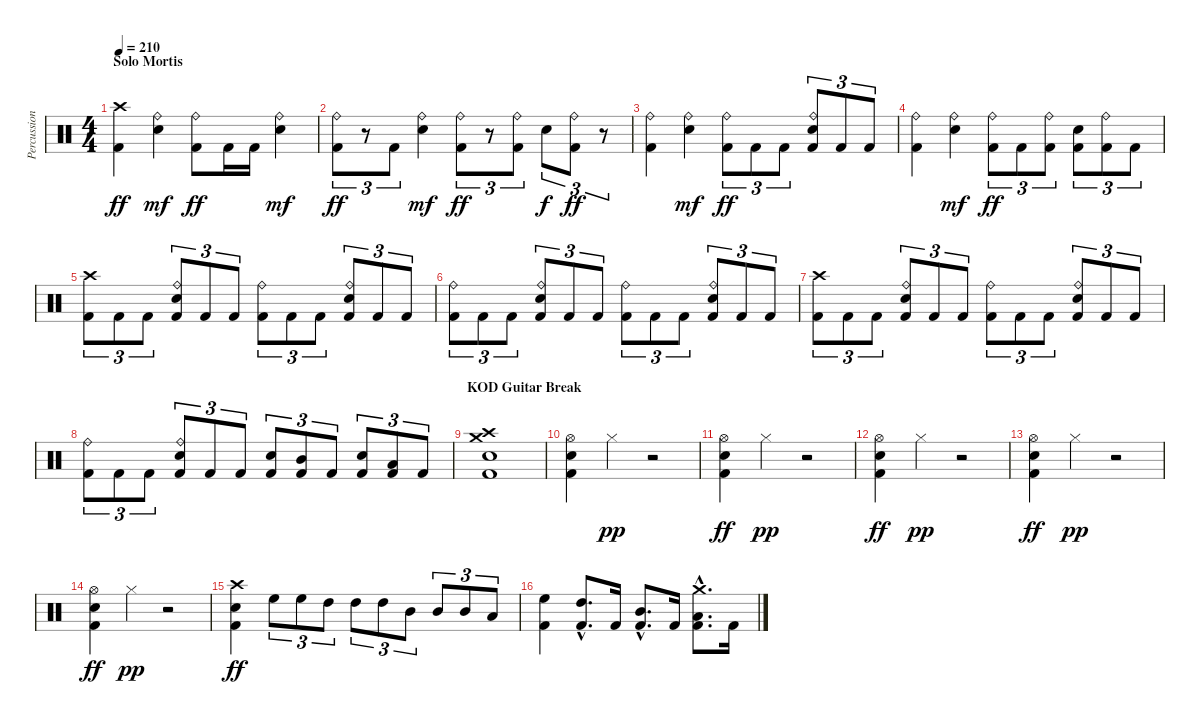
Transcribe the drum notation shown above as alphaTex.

\track ("Percussion" "Percussion") {instrument percussion}
\staff {score}
\articulation defaults
\ts (4 4)
\section ("" "Solo Mortis")
\tempo 210
\clef neutral
\ks c
("Crash high (hit)" "Kick (hit) 2").4{dy ff} ("Ride (bell)" "Snare (hit) 2").4{dy mf} ("Ride (bell)" "Kick (hit) 2").8{dy ff} "Kick (hit) 2".16 "Kick (hit) 2".16 ("Ride (bell)" "Snare (hit) 2").4{dy mf} |
("Ride (bell)" "Kick (hit) 2").8{tu (3 2) dy ff} r.8{tu (3 2)} "Kick (hit) 2".8{tu (3 2)} ("Ride (bell)" "Snare (hit) 2").4{dy mf} ("Ride (bell)" "Kick (hit) 2").8{tu (3 2) dy ff} r.8{tu (3 2)} ("Ride (bell)" "Kick (hit) 2").8{tu (3 2)} "Snare (hit) 2".8{tu (3 2) dy f} ("Ride (bell)" "Kick (hit) 2").8{tu (3 2) dy ff} r.8{tu (3 2)} |
("Ride (bell)" "Kick (hit) 2").4 ("Ride (bell)" "Snare (hit) 2").4{dy mf} ("Ride (bell)" "Kick (hit) 2").8{tu (3 2) dy ff} "Kick (hit) 2".8{tu (3 2)} "Kick (hit) 2".8{tu (3 2)} ("Ride (bell)" "Snare (hit) 2" "Kick (hit) 2").8{tu (3 2)} "Kick (hit) 2".8{tu (3 2)} "Kick (hit) 2".8{tu (3 2)} |
("Ride (bell)" "Kick (hit) 2").4 ("Ride (bell)" "Snare (hit) 2").4{dy mf} ("Ride (bell)" "Kick (hit) 2").8{tu (3 2) dy ff} "Kick (hit) 2".8{tu (3 2)} ("Ride (bell)" "Kick (hit) 2").8{tu (3 2)} ("Snare (hit) 2" "Kick (hit) 2").8{tu (3 2)} ("Ride (bell)" "Kick (hit) 2").8{tu (3 2)} "Kick (hit) 2".8{tu (3 2)} |
("Crash high (hit)" "Kick (hit) 2").8{tu (3 2)} "Kick (hit) 2".8{tu (3 2)} "Kick (hit) 2".8{tu (3 2)} ("Ride (bell)" "Snare (hit) 2" "Kick (hit) 2").8{tu (3 2)} "Kick (hit) 2".8{tu (3 2)} "Kick (hit) 2".8{tu (3 2)} ("Ride (bell)" "Kick (hit) 2").8{tu (3 2)} "Kick (hit) 2".8{tu (3 2)} "Kick (hit) 2".8{tu (3 2)} ("Ride (bell)" "Snare (hit) 2" "Kick (hit) 2").8{tu (3 2)} "Kick (hit) 2".8{tu (3 2)} "Kick (hit) 2".8{tu (3 2)} |
("Ride (bell)" "Kick (hit) 2").8{tu (3 2)} "Kick (hit) 2".8{tu (3 2)} "Kick (hit) 2".8{tu (3 2)} ("Ride (bell)" "Snare (hit) 2" "Kick (hit) 2").8{tu (3 2)} "Kick (hit) 2".8{tu (3 2)} "Kick (hit) 2".8{tu (3 2)} ("Ride (bell)" "Kick (hit) 2").8{tu (3 2)} "Kick (hit) 2".8{tu (3 2)} "Kick (hit) 2".8{tu (3 2)} ("Ride (bell)" "Snare (hit) 2" "Kick (hit) 2").8{tu (3 2)} "Kick (hit) 2".8{tu (3 2)} "Kick (hit) 2".8{tu (3 2)} |
("Crash high (hit)" "Kick (hit) 2").8{tu (3 2)} "Kick (hit) 2".8{tu (3 2)} "Kick (hit) 2".8{tu (3 2)} ("Ride (bell)" "Snare (hit) 2" "Kick (hit) 2").8{tu (3 2)} "Kick (hit) 2".8{tu (3 2)} "Kick (hit) 2".8{tu (3 2)} ("Ride (bell)" "Kick (hit) 2").8{tu (3 2)} "Kick (hit) 2".8{tu (3 2)} "Kick (hit) 2".8{tu (3 2)} ("Ride (bell)" "Snare (hit) 2" "Kick (hit) 2").8{tu (3 2)} "Kick (hit) 2".8{tu (3 2)} "Kick (hit) 2".8{tu (3 2)} |
("Ride (bell)" "Kick (hit) 2").8{tu (3 2)} "Kick (hit) 2".8{tu (3 2)} "Kick (hit) 2".8{tu (3 2)} ("Ride (bell)" "Snare (hit) 2" "Kick (hit) 2").8{tu (3 2)} "Kick (hit) 2".8{tu (3 2)} "Kick (hit) 2".8{tu (3 2)} ("Snare (hit) 2" "Kick (hit) 2").8{tu (3 2)} ("Mid Tom (hit)" "Kick (hit) 2").8{tu (3 2)} "Kick (hit) 2".8{tu (3 2)} ("Snare (hit) 2" "Kick (hit) 2").8{tu (3 2)} ("Low Tom (hit)" "Kick (hit) 2").8{tu (3 2)} "Kick (hit) 2".8{tu (3 2)} |
\section ("" "KOD Guitar Break")
("Crash high (hit)" "Crash medium (hit)" "Snare (hit) 2" "Kick (hit) 2").1 |
("Hi-Hat (open)" "Snare (hit) 2" "Kick (hit) 2").4 "Hi-Hat (closed)".4{dy pp} r.2 |
("Hi-Hat (open)" "Snare (hit) 2" "Kick (hit) 2").4{dy ff} "Hi-Hat (closed)".4{dy pp} r.2 |
("Hi-Hat (open)" "Snare (hit) 2" "Kick (hit) 2").4{dy ff} "Hi-Hat (closed)".4{dy pp} r.2 |
("Hi-Hat (open)" "Snare (hit) 2" "Kick (hit) 2").4{dy ff} "Hi-Hat (closed)".4{dy pp} r.2 |
("Hi-Hat (open)" "Snare (hit) 2" "Kick (hit) 2").4{dy ff} "Hi-Hat (closed)".4{dy pp} r.2 |
("Crash high (hit)" "Snare (hit) 2" "Kick (hit) 2").4{dy ff} "High Floor Tom (hit)".8{tu (3 2)} "High Floor Tom (hit)".8{tu (3 2)} "High Tom (hit)".8{tu (3 2)} "High Tom (hit)".8{tu (3 2)} "High Tom (hit)".8{tu (3 2)} "Mid Tom (hit)".8{tu (3 2)} "Mid Tom (hit)".8{tu (3 2)} "Mid Tom (hit)".8{tu (3 2)} "Low Tom (hit)".8{tu (3 2)} |
("High Floor Tom (hit)" "Kick (hit) 2").4 ("High Tom (hit)"{hac} "Kick (hit) 2"{hac}).8{d} "Kick (hit) 2".16 ("Mid Tom (hit)"{hac} "Kick (hit) 2"{hac}).8{d} "Kick (hit) 2".16 ("Crash medium (hit)"{hac} "Low Tom (hit)"{hac} "Kick (hit) 2"{hac}).8{d} "Kick (hit) 2".16
